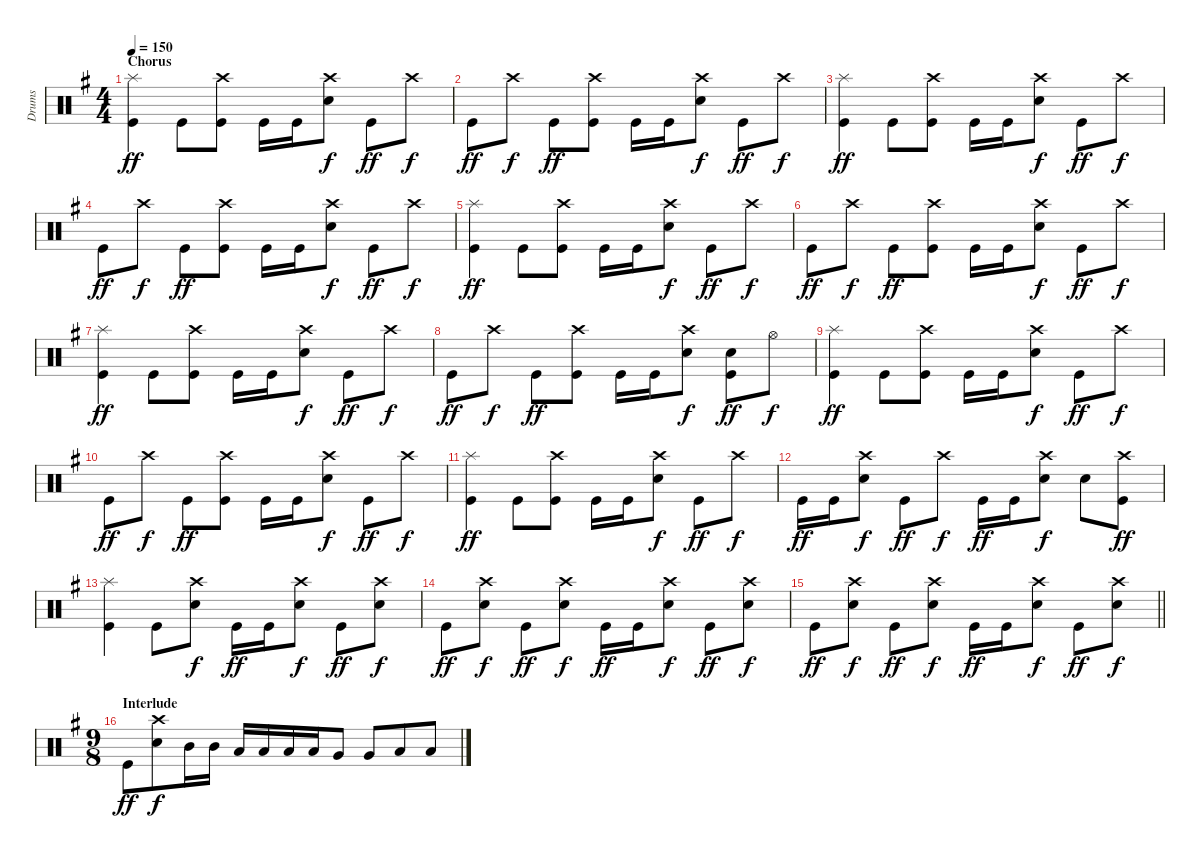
\track ("Drums" "Drums") {instrument percussion}
\staff {score}
\articulation defaults
\ts (4 4)
\section ("" "Chorus")
\tempo 150
\clef neutral
\ks g
("Splash (hit)" "Kick (hit)").4{dy ff} "Kick (hit)".8 ("Crash high (hit)" "Kick (hit)").8 "Kick (hit)".16 "Kick (hit)".16 ("Crash high (hit)" "Electric Snare (hit)").8{dy f} "Kick (hit)".8{dy ff} "Crash high (hit)".8{dy f} |
"Kick (hit)".8{dy ff} "Crash high (hit)".8{dy f} "Kick (hit)".8{dy ff} ("Crash high (hit)" "Kick (hit)").8 "Kick (hit)".16 "Kick (hit)".16 ("Crash high (hit)" "Electric Snare (hit)").8{dy f} "Kick (hit)".8{dy ff} "Crash high (hit)".8{dy f} |
("Splash (hit)" "Kick (hit)").4{dy ff} "Kick (hit)".8 ("Crash high (hit)" "Kick (hit)").8 "Kick (hit)".16 "Kick (hit)".16 ("Crash high (hit)" "Electric Snare (hit)").8{dy f} "Kick (hit)".8{dy ff} "Crash high (hit)".8{dy f} |
"Kick (hit)".8{dy ff} "Crash high (hit)".8{dy f} "Kick (hit)".8{dy ff} ("Crash high (hit)" "Kick (hit)").8 "Kick (hit)".16 "Kick (hit)".16 ("Crash high (hit)" "Electric Snare (hit)").8{dy f} "Kick (hit)".8{dy ff} "Crash high (hit)".8{dy f} |
("Splash (hit)" "Kick (hit)").4{dy ff} "Kick (hit)".8 ("Crash high (hit)" "Kick (hit)").8 "Kick (hit)".16 "Kick (hit)".16 ("Crash high (hit)" "Electric Snare (hit)").8{dy f} "Kick (hit)".8{dy ff} "Crash high (hit)".8{dy f} |
"Kick (hit)".8{dy ff} "Crash high (hit)".8{dy f} "Kick (hit)".8{dy ff} ("Crash high (hit)" "Kick (hit)").8 "Kick (hit)".16 "Kick (hit)".16 ("Crash high (hit)" "Electric Snare (hit)").8{dy f} "Kick (hit)".8{dy ff} "Crash high (hit)".8{dy f} |
("Splash (hit)" "Kick (hit)").4{dy ff} "Kick (hit)".8 ("Crash high (hit)" "Kick (hit)").8 "Kick (hit)".16 "Kick (hit)".16 ("Crash high (hit)" "Electric Snare (hit)").8{dy f} "Kick (hit)".8{dy ff} "Crash high (hit)".8{dy f} |
"Kick (hit)".8{dy ff} "Crash high (hit)".8{dy f} "Kick (hit)".8{dy ff} ("Crash high (hit)" "Kick (hit)").8 "Kick (hit)".16 "Kick (hit)".16 ("Crash high (hit)" "Electric Snare (hit)").8{dy f} ("Electric Snare (hit)" "Kick (hit)").8{dy ff} "Hi-Hat (open)".8{dy f} |
("Splash (hit)" "Kick (hit)").4{dy ff} "Kick (hit)".8 ("Crash high (hit)" "Kick (hit)").8 "Kick (hit)".16 "Kick (hit)".16 ("Crash high (hit)" "Electric Snare (hit)").8{dy f} "Kick (hit)".8{dy ff} "Crash high (hit)".8{dy f} |
"Kick (hit)".8{dy ff} "Crash high (hit)".8{dy f} "Kick (hit)".8{dy ff} ("Crash high (hit)" "Kick (hit)").8 "Kick (hit)".16 "Kick (hit)".16 ("Crash high (hit)" "Electric Snare (hit)").8{dy f} "Kick (hit)".8{dy ff} "Crash high (hit)".8{dy f} |
("Splash (hit)" "Kick (hit)").4{dy ff} "Kick (hit)".8 ("Crash high (hit)" "Kick (hit)").8 "Kick (hit)".16 "Kick (hit)".16 ("Crash high (hit)" "Electric Snare (hit)").8{dy f} "Kick (hit)".8{dy ff} "Crash high (hit)".8{dy f} |
"Kick (hit)".16{dy ff} "Kick (hit)".16 ("Crash high (hit)" "Electric Snare (hit)").8{dy f} "Kick (hit)".8{dy ff} "Crash high (hit)".8{dy f} "Kick (hit)".16{dy ff} "Kick (hit)".16 ("Crash high (hit)" "Electric Snare (hit)").8{dy f} "Electric Snare (hit)".8 ("Crash high (hit)" "Kick (hit)").8{dy ff} |
("Splash (hit)" "Kick (hit)").4 "Kick (hit)".8 ("Crash high (hit)" "Electric Snare (hit)").8{dy f} "Kick (hit)".16{dy ff} "Kick (hit)".16 ("Crash high (hit)" "Electric Snare (hit)").8{dy f} "Kick (hit)".8{dy ff} ("Crash high (hit)" "Electric Snare (hit)").8{dy f} |
"Kick (hit)".8{dy ff} ("Crash high (hit)" "Electric Snare (hit)").8{dy f} "Kick (hit)".8{dy ff} ("Crash high (hit)" "Electric Snare (hit)").8{dy f} "Kick (hit)".16{dy ff} "Kick (hit)".16 ("Crash high (hit)" "Electric Snare (hit)").8{dy f} "Kick (hit)".8{dy ff} ("Crash high (hit)" "Electric Snare (hit)").8{dy f} |
\barLineRight lightlight "Kick (hit)".8{dy ff}
("Crash high (hit)" "Electric Snare (hit)").8{dy f} "Kick (hit)".8{dy ff} ("Crash high (hit)" "Electric Snare (hit)").8{dy f} "Kick (hit)".16{dy ff} "Kick (hit)".16 ("Crash high (hit)" "Electric Snare (hit)").8{dy f} "Kick (hit)".8{dy ff} ("Crash high (hit)" "Electric Snare (hit)").8{dy f} |
\ts (9 8)
\section ("" "Interlude")
"Kick (hit)".8{dy ff} ("Crash high (hit)" "Electric Snare (hit)").8{dy f} "Mid Tom (hit)".16 "Mid Tom (hit)".16 "Low Tom (hit)".16 "Low Tom (hit)".16 "Low Tom (hit)".16 "Low Tom (hit)".16{beam merge} "Very Low Tom (hit)".8{beam split} "Very Low Tom (hit)".8 "Low Floor Tom (hit)".8 "Low Floor Tom (hit)".8
